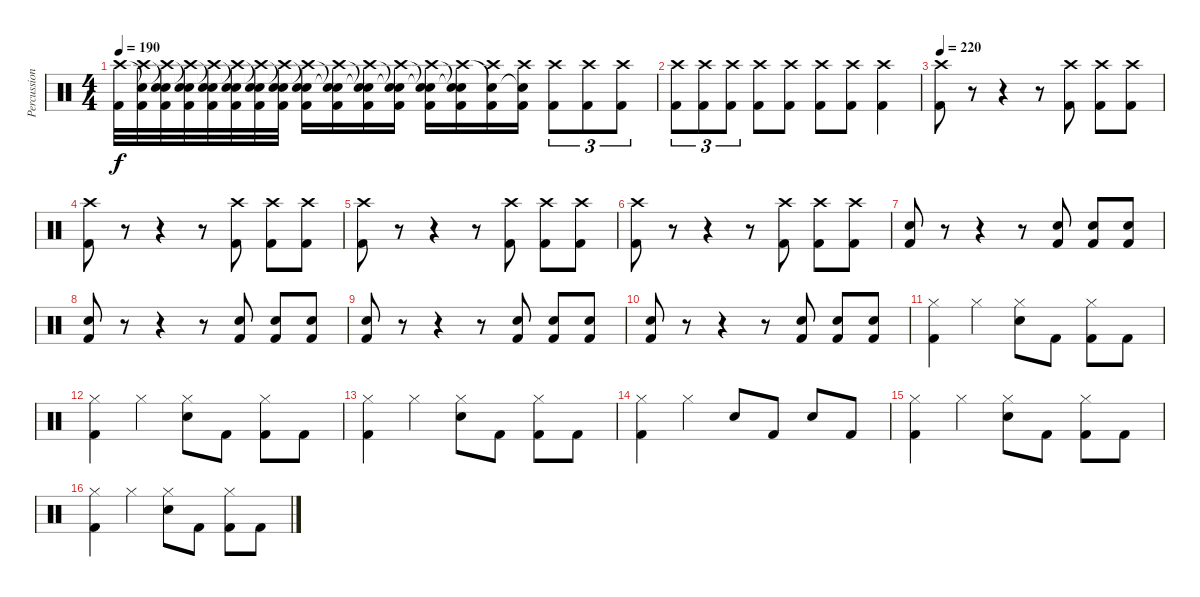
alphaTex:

\track ("Percussion" "Percussion") {instrument percussion}
\staff {score}
\articulation defaults
\ts (4 4)
\tempo 190
\clef neutral
\ks c
("Crash high (hit)" "Kick (hit) 2").32{dy f} ("Snare (hit)"{t} "Crash high (hit)" "Kick (hit) 2").32 ("Snare (hit)"{t} "Snare (hit)"{t} "Crash high (hit)" "Kick (hit) 2").32 ("Crash high (hit)" "Snare (hit)"{t} "Snare (hit)"{t} "Kick (hit) 2").32 ("Snare (hit)"{t} "Crash high (hit)" "Snare (hit)"{t} "Kick (hit) 2").32 ("Snare (hit)"{t} "Snare (hit)"{t} "Crash high (hit)" "Kick (hit) 2").32 ("Crash high (hit)" "Snare (hit)"{t} "Snare (hit)"{t} "Kick (hit) 2").32 ("Snare (hit)"{t} "Crash high (hit)" "Snare (hit)"{t} "Kick (hit) 2").32 ("Snare (hit)"{t} "Snare (hit)"{t} "Crash high (hit)" "Kick (hit) 2").16 ("Snare (hit)"{t} "Crash high (hit)" "Snare (hit)"{t} "Kick (hit) 2").16 ("Crash high (hit)" "Snare (hit)"{t} "Snare (hit)"{t} "Kick (hit) 2").16 ("Snare (hit)"{t} "Crash high (hit)" "Snare (hit)"{t} "Kick (hit) 2").16 ("Snare (hit)"{t} "Snare (hit)"{t} "Crash high (hit)" "Kick (hit) 2").16 ("Snare (hit)"{t} "Crash high (hit)" "Snare (hit)"{t} "Kick (hit) 2").16 ("Crash high (hit)" "Snare (hit)"{t} "Kick (hit) 2").16 ("Crash high (hit)" "Snare (hit)"{t} "Kick (hit) 2").16 ("Crash high (hit)" "Kick (hit) 2").8{tu (3 2)} ("Crash high (hit)" "Kick (hit) 2").8{tu (3 2)} ("Crash high (hit)" "Kick (hit) 2").8{tu (3 2)} |
("Crash high (hit)" "Kick (hit) 2").8{tu (3 2)} ("Crash high (hit)" "Kick (hit) 2").8{tu (3 2)} ("Crash high (hit)" "Kick (hit) 2").8{tu (3 2)} ("Crash high (hit)" "Kick (hit) 2").8 ("Crash high (hit)" "Kick (hit) 2").8 ("Crash high (hit)" "Kick (hit) 2").8 ("Crash high (hit)" "Kick (hit) 2").8 ("Crash high (hit)" "Kick (hit) 2").4 |
\tempo 220
("Crash high (hit)" "Kick (hit) 2").8 r.8 r.4 r.8 ("Crash high (hit)" "Kick (hit) 2").8 ("Crash high (hit)" "Kick (hit) 2").8 ("Crash high (hit)" "Kick (hit) 2").8 |
("Crash high (hit)" "Kick (hit) 2").8 r.8 r.4 r.8 ("Crash high (hit)" "Kick (hit) 2").8 ("Crash high (hit)" "Kick (hit) 2").8 ("Crash high (hit)" "Kick (hit) 2").8 |
("Crash high (hit)" "Kick (hit) 2").8 r.8 r.4 r.8 ("Crash high (hit)" "Kick (hit) 2").8 ("Crash high (hit)" "Kick (hit) 2").8 ("Crash high (hit)" "Kick (hit) 2").8 |
("Crash high (hit)" "Kick (hit) 2").8 r.8 r.4 r.8 ("Crash high (hit)" "Kick (hit) 2").8 ("Crash high (hit)" "Kick (hit) 2").8 ("Crash high (hit)" "Kick (hit) 2").8 |
("Snare (hit) 2" "Kick (hit) 2").8 r.8 r.4 r.8 ("Snare (hit) 2" "Kick (hit) 2").8 ("Snare (hit) 2" "Kick (hit) 2").8 ("Snare (hit) 2" "Kick (hit) 2").8 |
("Snare (hit) 2" "Kick (hit) 2").8 r.8 r.4 r.8 ("Snare (hit) 2" "Kick (hit) 2").8 ("Snare (hit) 2" "Kick (hit) 2").8 ("Snare (hit) 2" "Kick (hit) 2").8 |
("Snare (hit) 2" "Kick (hit) 2").8 r.8 r.4 r.8 ("Snare (hit) 2" "Kick (hit) 2").8 ("Snare (hit) 2" "Kick (hit) 2").8 ("Snare (hit) 2" "Kick (hit) 2").8 |
("Snare (hit) 2" "Kick (hit) 2").8 r.8 r.4 r.8 ("Snare (hit) 2" "Kick (hit) 2").8 ("Snare (hit) 2" "Kick (hit) 2").8 ("Snare (hit) 2" "Kick (hit) 2").8 |
("Hi-Hat (closed)" "Kick (hit) 2").4 "Hi-Hat (closed)".4 ("Hi-Hat (closed)" "Snare (hit) 2").8 "Kick (hit) 2".8 ("Hi-Hat (closed)" "Kick (hit) 2").8 "Kick (hit) 2".8 |
("Hi-Hat (closed)" "Kick (hit) 2").4 "Hi-Hat (closed)".4 ("Hi-Hat (closed)" "Snare (hit) 2").8 "Kick (hit) 2".8 ("Hi-Hat (closed)" "Kick (hit) 2").8 "Kick (hit) 2".8 |
("Hi-Hat (closed)" "Kick (hit) 2").4 "Hi-Hat (closed)".4 ("Hi-Hat (closed)" "Snare (hit) 2").8 "Kick (hit) 2".8 ("Hi-Hat (closed)" "Kick (hit) 2").8 "Kick (hit) 2".8 |
("Hi-Hat (closed)" "Kick (hit) 2").4 "Hi-Hat (closed)".4 "Snare (hit) 2".8 "Kick (hit) 2".8 "Snare (hit) 2".8 "Kick (hit) 2".8 |
("Hi-Hat (closed)" "Kick (hit) 2").4 "Hi-Hat (closed)".4 ("Hi-Hat (closed)" "Snare (hit) 2").8 "Kick (hit) 2".8 ("Hi-Hat (closed)" "Kick (hit) 2").8 "Kick (hit) 2".8 |
("Hi-Hat (closed)" "Kick (hit) 2").4 "Hi-Hat (closed)".4 ("Hi-Hat (closed)" "Snare (hit) 2").8 "Kick (hit) 2".8 ("Hi-Hat (closed)" "Kick (hit) 2").8 "Kick (hit) 2".8
